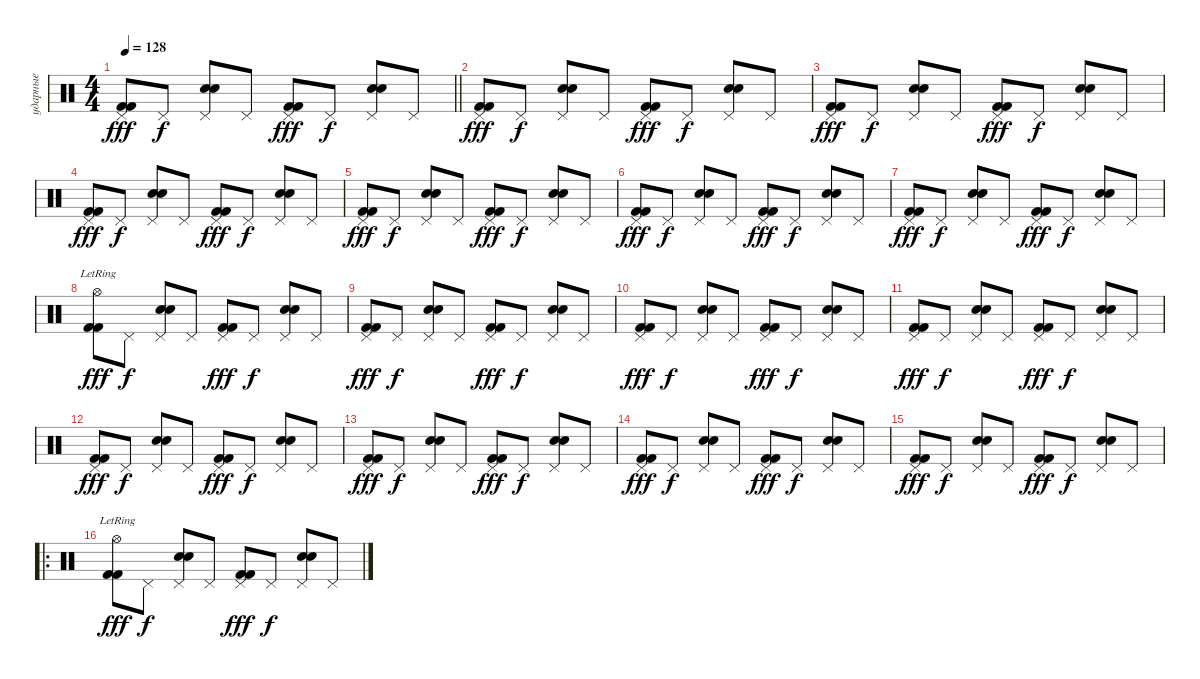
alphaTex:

\track ("ударные" "ударные") {instrument percussion}
\staff {score}
\articulation defaults
\ts (4 4)
\tempo 128
\clef neutral
\barLineRight lightlight
\ks aminor
("Kick (hit) 2" "Kick (hit) 2" "Pedal Hi-Hat (hit)").8{dy fff} "Pedal Hi-Hat (hit)".8{dy f} ("Electric Snare (hit)" "Electric Snare (hit)" "Pedal Hi-Hat (hit)").8 "Pedal Hi-Hat (hit)".8 ("Kick (hit) 2" "Kick (hit) 2" "Pedal Hi-Hat (hit)").8{dy fff} "Pedal Hi-Hat (hit)".8{dy f} ("Electric Snare (hit)" "Electric Snare (hit)" "Pedal Hi-Hat (hit)").8 "Pedal Hi-Hat (hit)".8 |
\section ("" "")
("Kick (hit) 2" "Kick (hit) 2" "Pedal Hi-Hat (hit)").8{dy fff} "Pedal Hi-Hat (hit)".8{dy f} ("Electric Snare (hit)" "Electric Snare (hit)" "Pedal Hi-Hat (hit)").8 "Pedal Hi-Hat (hit)".8 ("Kick (hit) 2" "Kick (hit) 2" "Pedal Hi-Hat (hit)").8{dy fff} "Pedal Hi-Hat (hit)".8{dy f} ("Electric Snare (hit)" "Electric Snare (hit)" "Pedal Hi-Hat (hit)").8 "Pedal Hi-Hat (hit)".8 |
("Kick (hit) 2" "Kick (hit) 2" "Pedal Hi-Hat (hit)").8{dy fff} "Pedal Hi-Hat (hit)".8{dy f} ("Electric Snare (hit)" "Electric Snare (hit)" "Pedal Hi-Hat (hit)").8 "Pedal Hi-Hat (hit)".8 ("Kick (hit) 2" "Kick (hit) 2" "Pedal Hi-Hat (hit)").8{dy fff} "Pedal Hi-Hat (hit)".8{dy f} ("Electric Snare (hit)" "Electric Snare (hit)" "Pedal Hi-Hat (hit)").8 "Pedal Hi-Hat (hit)".8 |
("Kick (hit) 2" "Kick (hit) 2" "Pedal Hi-Hat (hit)").8{dy fff} "Pedal Hi-Hat (hit)".8{dy f} ("Electric Snare (hit)" "Electric Snare (hit)" "Pedal Hi-Hat (hit)").8 "Pedal Hi-Hat (hit)".8 ("Kick (hit) 2" "Kick (hit) 2" "Pedal Hi-Hat (hit)").8{dy fff} "Pedal Hi-Hat (hit)".8{dy f} ("Electric Snare (hit)" "Electric Snare (hit)" "Pedal Hi-Hat (hit)").8 "Pedal Hi-Hat (hit)".8 |
("Kick (hit) 2" "Kick (hit) 2" "Pedal Hi-Hat (hit)").8{dy fff} "Pedal Hi-Hat (hit)".8{dy f} ("Electric Snare (hit)" "Electric Snare (hit)" "Pedal Hi-Hat (hit)").8 "Pedal Hi-Hat (hit)".8 ("Kick (hit) 2" "Kick (hit) 2" "Pedal Hi-Hat (hit)").8{dy fff} "Pedal Hi-Hat (hit)".8{dy f} ("Electric Snare (hit)" "Electric Snare (hit)" "Pedal Hi-Hat (hit)").8 "Pedal Hi-Hat (hit)".8 |
("Kick (hit) 2" "Kick (hit) 2" "Pedal Hi-Hat (hit)").8{dy fff} "Pedal Hi-Hat (hit)".8{dy f} ("Electric Snare (hit)" "Electric Snare (hit)" "Pedal Hi-Hat (hit)").8 "Pedal Hi-Hat (hit)".8 ("Kick (hit) 2" "Kick (hit) 2" "Pedal Hi-Hat (hit)").8{dy fff} "Pedal Hi-Hat (hit)".8{dy f} ("Electric Snare (hit)" "Electric Snare (hit)" "Pedal Hi-Hat (hit)").8 "Pedal Hi-Hat (hit)".8 |
("Kick (hit) 2" "Kick (hit) 2" "Pedal Hi-Hat (hit)").8{dy fff} "Pedal Hi-Hat (hit)".8{dy f} ("Electric Snare (hit)" "Electric Snare (hit)" "Pedal Hi-Hat (hit)").8 "Pedal Hi-Hat (hit)".8 ("Kick (hit) 2" "Kick (hit) 2" "Pedal Hi-Hat (hit)").8{dy fff} "Pedal Hi-Hat (hit)".8{dy f} ("Electric Snare (hit)" "Electric Snare (hit)" "Pedal Hi-Hat (hit)").8 "Pedal Hi-Hat (hit)".8 |
("Kick (hit) 2" "Kick (hit) 2" "Hi-Hat (open)"{lr}).8{dy fff} "Pedal Hi-Hat (hit)".8{dy f} ("Electric Snare (hit)" "Electric Snare (hit)" "Pedal Hi-Hat (hit)").8 "Pedal Hi-Hat (hit)".8 ("Kick (hit) 2" "Kick (hit) 2" "Pedal Hi-Hat (hit)").8{dy fff} "Pedal Hi-Hat (hit)".8{dy f} ("Electric Snare (hit)" "Electric Snare (hit)" "Pedal Hi-Hat (hit)").8 "Pedal Hi-Hat (hit)".8 |
("Kick (hit) 2" "Kick (hit) 2" "Pedal Hi-Hat (hit)").8{dy fff} "Pedal Hi-Hat (hit)".8{dy f} ("Electric Snare (hit)" "Electric Snare (hit)" "Pedal Hi-Hat (hit)").8 "Pedal Hi-Hat (hit)".8 ("Kick (hit) 2" "Kick (hit) 2" "Pedal Hi-Hat (hit)").8{dy fff} "Pedal Hi-Hat (hit)".8{dy f} ("Electric Snare (hit)" "Electric Snare (hit)" "Pedal Hi-Hat (hit)").8 "Pedal Hi-Hat (hit)".8 |
("Kick (hit) 2" "Kick (hit) 2" "Pedal Hi-Hat (hit)").8{dy fff} "Pedal Hi-Hat (hit)".8{dy f} ("Electric Snare (hit)" "Electric Snare (hit)" "Pedal Hi-Hat (hit)").8 "Pedal Hi-Hat (hit)".8 ("Kick (hit) 2" "Kick (hit) 2" "Pedal Hi-Hat (hit)").8{dy fff} "Pedal Hi-Hat (hit)".8{dy f} ("Electric Snare (hit)" "Electric Snare (hit)" "Pedal Hi-Hat (hit)").8 "Pedal Hi-Hat (hit)".8 |
("Kick (hit) 2" "Kick (hit) 2" "Pedal Hi-Hat (hit)").8{dy fff} "Pedal Hi-Hat (hit)".8{dy f} ("Electric Snare (hit)" "Electric Snare (hit)" "Pedal Hi-Hat (hit)").8 "Pedal Hi-Hat (hit)".8 ("Kick (hit) 2" "Kick (hit) 2" "Pedal Hi-Hat (hit)").8{dy fff} "Pedal Hi-Hat (hit)".8{dy f} ("Electric Snare (hit)" "Electric Snare (hit)" "Pedal Hi-Hat (hit)").8 "Pedal Hi-Hat (hit)".8 |
("Kick (hit) 2" "Kick (hit) 2" "Pedal Hi-Hat (hit)").8{dy fff} "Pedal Hi-Hat (hit)".8{dy f} ("Electric Snare (hit)" "Electric Snare (hit)" "Pedal Hi-Hat (hit)").8 "Pedal Hi-Hat (hit)".8 ("Kick (hit) 2" "Kick (hit) 2" "Pedal Hi-Hat (hit)").8{dy fff} "Pedal Hi-Hat (hit)".8{dy f} ("Electric Snare (hit)" "Electric Snare (hit)" "Pedal Hi-Hat (hit)").8 "Pedal Hi-Hat (hit)".8 |
("Kick (hit) 2" "Kick (hit) 2" "Pedal Hi-Hat (hit)").8{dy fff} "Pedal Hi-Hat (hit)".8{dy f} ("Electric Snare (hit)" "Electric Snare (hit)" "Pedal Hi-Hat (hit)").8 "Pedal Hi-Hat (hit)".8 ("Kick (hit) 2" "Kick (hit) 2" "Pedal Hi-Hat (hit)").8{dy fff} "Pedal Hi-Hat (hit)".8{dy f} ("Electric Snare (hit)" "Electric Snare (hit)" "Pedal Hi-Hat (hit)").8 "Pedal Hi-Hat (hit)".8 |
("Kick (hit) 2" "Kick (hit) 2" "Pedal Hi-Hat (hit)").8{dy fff} "Pedal Hi-Hat (hit)".8{dy f} ("Electric Snare (hit)" "Electric Snare (hit)" "Pedal Hi-Hat (hit)").8 "Pedal Hi-Hat (hit)".8 ("Kick (hit) 2" "Kick (hit) 2" "Pedal Hi-Hat (hit)").8{dy fff} "Pedal Hi-Hat (hit)".8{dy f} ("Electric Snare (hit)" "Electric Snare (hit)" "Pedal Hi-Hat (hit)").8 "Pedal Hi-Hat (hit)".8 |
("Kick (hit) 2" "Kick (hit) 2" "Pedal Hi-Hat (hit)").8{dy fff} "Pedal Hi-Hat (hit)".8{dy f} ("Electric Snare (hit)" "Electric Snare (hit)" "Pedal Hi-Hat (hit)").8 "Pedal Hi-Hat (hit)".8 ("Kick (hit) 2" "Kick (hit) 2" "Pedal Hi-Hat (hit)").8{dy fff} "Pedal Hi-Hat (hit)".8{dy f} ("Electric Snare (hit)" "Electric Snare (hit)" "Pedal Hi-Hat (hit)").8 "Pedal Hi-Hat (hit)".8 |
\ro
("Kick (hit) 2" "Kick (hit) 2" "Hi-Hat (open)"{lr}).8{dy fff} "Pedal Hi-Hat (hit)".8{dy f} ("Electric Snare (hit)" "Electric Snare (hit)" "Pedal Hi-Hat (hit)").8 "Pedal Hi-Hat (hit)".8 ("Kick (hit) 2" "Kick (hit) 2" "Pedal Hi-Hat (hit)").8{dy fff} "Pedal Hi-Hat (hit)".8{dy f} ("Electric Snare (hit)" "Electric Snare (hit)" "Pedal Hi-Hat (hit)").8 "Pedal Hi-Hat (hit)".8
